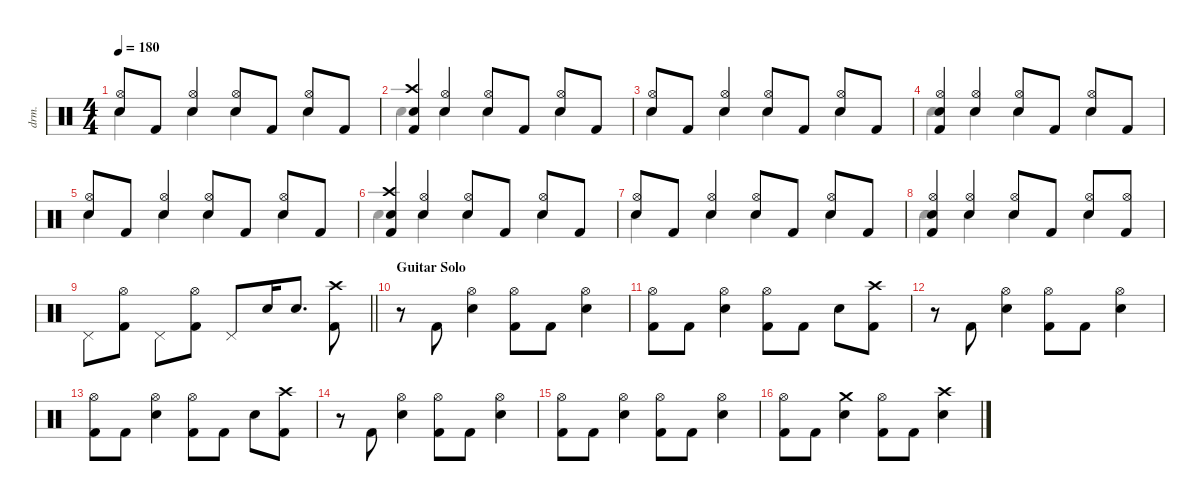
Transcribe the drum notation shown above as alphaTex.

\defaultSystemsLayout 4
\hideDynamics
\bracketExtendMode nobrackets
\otherSystemsTrackNameOrientation horizontal
\track ("Drums: Ritsu Tainaka" "drm.") {instrument percussion}
\staff {score}
\articulation defaults
\voice
\ts (4 4)
\tempo 180
\clef neutral
\ks c
("Hi-Hat (open)" "Snare (hit) 2").8{dy f beam Up} "Kick (hit) 2".8{beam Up} ("Hi-Hat (open)" "Snare (hit) 2").4{beam Up} ("Hi-Hat (open)" "Snare (hit) 2").8{beam Up} "Kick (hit) 2".8{beam Up} ("Hi-Hat (open)" "Snare (hit) 2").8{beam Up} "Kick (hit) 2".8{beam Up} |
("Crash high (hit)" "Snare (hit) 2" "Kick (hit) 2").4{beam Up} ("Hi-Hat (open)" "Snare (hit) 2").4{beam Up} ("Hi-Hat (open)" "Snare (hit) 2").8{beam Up} "Kick (hit) 2".8{beam Up} ("Hi-Hat (open)" "Snare (hit) 2").8{beam Up} "Kick (hit) 2".8{beam Up} |
("Hi-Hat (open)" "Snare (hit) 2").8{beam Up} "Kick (hit) 2".8{beam Up} ("Hi-Hat (open)" "Snare (hit) 2").4{beam Up} ("Hi-Hat (open)" "Snare (hit) 2").8{beam Up} "Kick (hit) 2".8{beam Up} ("Hi-Hat (open)" "Snare (hit) 2").8{beam Up} "Kick (hit) 2".8{beam Up} |
("Hi-Hat (open)" "Snare (hit) 2" "Kick (hit) 2").4{beam Up} ("Hi-Hat (open)" "Snare (hit) 2").4{beam Up} ("Hi-Hat (open)" "Snare (hit) 2").8{beam Up} "Kick (hit) 2".8{beam Up} ("Hi-Hat (open)" "Snare (hit) 2").8{beam Up} "Kick (hit) 2".8{beam Up} |
("Hi-Hat (open)" "Snare (hit) 2").8{beam Up} "Kick (hit) 2".8{beam Up} ("Hi-Hat (open)" "Snare (hit) 2").4{beam Up} ("Hi-Hat (open)" "Snare (hit) 2").8{beam Up} "Kick (hit) 2".8{beam Up} ("Hi-Hat (open)" "Snare (hit) 2").8{beam Up} "Kick (hit) 2".8{beam Up} |
("Crash high (hit)" "Snare (hit) 2" "Kick (hit) 2").4{beam Up} ("Hi-Hat (open)" "Snare (hit) 2").4{beam Up} ("Hi-Hat (open)" "Snare (hit) 2").8{beam Up} "Kick (hit) 2".8{beam Up} ("Hi-Hat (open)" "Snare (hit) 2").8{beam Up} "Kick (hit) 2".8{beam Up} |
("Hi-Hat (open)" "Snare (hit) 2").8{beam Up} "Kick (hit) 2".8{beam Up} ("Hi-Hat (open)" "Snare (hit) 2").4{beam Up} ("Hi-Hat (open)" "Snare (hit) 2").8{beam Up} "Kick (hit) 2".8{beam Up} ("Hi-Hat (open)" "Snare (hit) 2").8{beam Up} "Kick (hit) 2".8{beam Up} |
("Hi-Hat (open)" "Snare (hit) 2" "Kick (hit) 2").4{beam Up} ("Hi-Hat (open)" "Snare (hit) 2").4{beam Up} ("Hi-Hat (open)" "Snare (hit) 2").8{beam Up} "Kick (hit) 2".8{beam Up} ("Hi-Hat (open)" "Snare (hit) 2").8{beam Up} ("Hi-Hat (open)" "Kick (hit) 2").8{beam Up} |
\barLineRight lightlight "Pedal Hi-Hat (hit)".8{beam Down}
("Hi-Hat (open)" "Kick (hit) 2").8{beam Down} "Pedal Hi-Hat (hit)".8{beam Down} ("Hi-Hat (open)" "Kick (hit) 2").8{beam Down} "Pedal Hi-Hat (hit)".8{beam Up} "Snare (hit) 2".16{beam Up} "Snare (hit) 2".8{d beam Up} ("Crash high (hit)" "Kick (hit) 2").8{beam Down} |
\section ("" "Guitar Solo")
r.8{beam Down} "Kick (hit) 2".8{beam Up} ("Hi-Hat (open)" "Snare (hit) 2").4{beam Down} ("Hi-Hat (open)" "Kick (hit) 2").8{beam Down} "Kick (hit) 2".8{beam Down} ("Hi-Hat (open)" "Snare (hit) 2").4{beam Down} |
("Hi-Hat (open)" "Kick (hit) 2").8{beam Down} "Kick (hit) 2".8{beam Down} ("Hi-Hat (open)" "Snare (hit) 2").4{beam Down} ("Hi-Hat (open)" "Kick (hit) 2").8{beam Down} "Kick (hit) 2".8{beam Down} "Snare (hit) 2".8{beam Down} ("Crash high (hit)" "Kick (hit) 2").8{beam Down} |
r.8{beam Down} "Kick (hit) 2".8{beam Up} ("Hi-Hat (open)" "Snare (hit) 2").4{beam Down} ("Hi-Hat (open)" "Kick (hit) 2").8{beam Down} "Kick (hit) 2".8{beam Down} ("Hi-Hat (open)" "Snare (hit) 2").4{beam Down} |
("Hi-Hat (open)" "Kick (hit) 2").8{beam Down} "Kick (hit) 2".8{beam Down} ("Hi-Hat (open)" "Snare (hit) 2").4{beam Down} ("Hi-Hat (open)" "Kick (hit) 2").8{beam Down} "Kick (hit) 2".8{beam Down} "Snare (hit) 2".8{beam Down} ("Crash high (hit)" "Kick (hit) 2").8{beam Down} |
r.8{beam Down} "Kick (hit) 2".8{beam Up} ("Hi-Hat (open)" "Snare (hit) 2").4{beam Down} ("Hi-Hat (open)" "Kick (hit) 2").8{beam Down} "Kick (hit) 2".8{beam Down} ("Hi-Hat (open)" "Snare (hit) 2").4{beam Down} |
("Hi-Hat (open)" "Kick (hit) 2").8{beam Down} "Kick (hit) 2".8{beam Down} ("Hi-Hat (open)" "Snare (hit) 2").4{beam Down} ("Hi-Hat (open)" "Kick (hit) 2").8{beam Down} "Kick (hit) 2".8{beam Down} ("Hi-Hat (open)" "Snare (hit) 2").4{beam Down} |
("Hi-Hat (open)" "Kick (hit) 2").8{beam Down} "Kick (hit) 2".8{beam Down} ("Crash medium (hit)" "Snare (hit) 2").4{beam Down} ("Hi-Hat (open)" "Kick (hit) 2").8{beam Down} "Kick (hit) 2".8{beam Down} ("Crash high (hit)" "Snare (hit) 2").4{beam Down}
\voice
\clef neutral
\ottava regular
\simile none
\ks c "Hand Clap (hit)".4{dy f beam Down} "Hand Clap (hit)".4{beam Down} "Hand Clap (hit)".4{beam Down} "Hand Clap (hit)".4{beam Down}
|
"Hand Clap (hit)".4{beam Down} "Hand Clap (hit)".4{beam Down} "Hand Clap (hit)".4{beam Down} "Hand Clap (hit)".4{beam Down} |
"Hand Clap (hit)".4{beam Down} "Hand Clap (hit)".4{beam Down} "Hand Clap (hit)".4{beam Down} "Hand Clap (hit)".4{beam Down} |
"Hand Clap (hit)".4{beam Down} "Hand Clap (hit)".4{beam Down} "Hand Clap (hit)".4{beam Down} "Hand Clap (hit)".4{beam Down} |
"Hand Clap (hit)".4{beam Down} "Hand Clap (hit)".4{beam Down} "Hand Clap (hit)".4{beam Down} "Hand Clap (hit)".4{beam Down} |
"Hand Clap (hit)".4{beam Down} "Hand Clap (hit)".4{beam Down} "Hand Clap (hit)".4{beam Down} "Hand Clap (hit)".4{beam Down} |
"Hand Clap (hit)".4{beam Down} "Hand Clap (hit)".4{beam Down} "Hand Clap (hit)".4{beam Down} "Hand Clap (hit)".4{beam Down} |
"Hand Clap (hit)".4{beam Down} "Hand Clap (hit)".4{beam Down} "Hand Clap (hit)".4{beam Down} "Hand Clap (hit)".4{beam Down} |
\barLineRight lightlight
|
|
|
|
|
|
|
